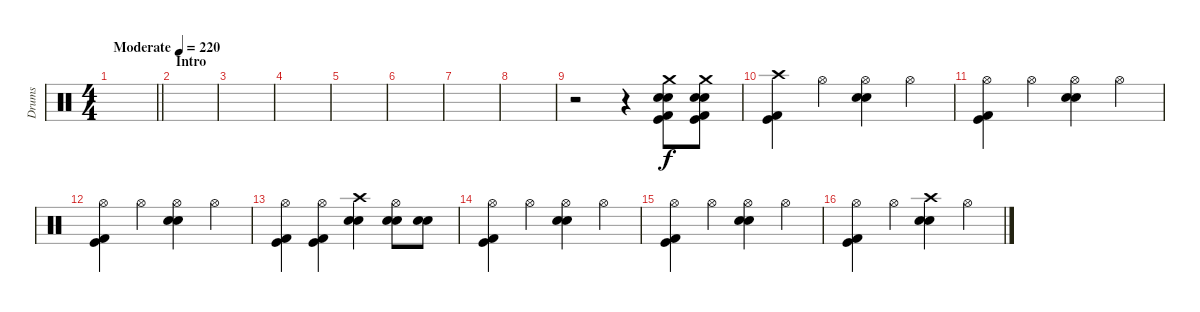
\track ("Drums" "Drums") {instrument percussion}
\staff {score}
\articulation defaults
\ts (4 4)
\tempo (220 "Moderate")
\clef neutral
\barLineRight lightlight
\ks c
|
\section ("" "Intro")
|
|
|
|
|
|
|
r.2 r.4 ("Crash medium (hit)" "Snare (hit) 2" "Electric Snare (hit)" "Kick (hit) 2" "Kick (hit)").8 ("Crash medium (hit)" "Snare (hit) 2" "Electric Snare (hit)" "Kick (hit) 2" "Kick (hit)").8 |
("Crash high (hit)" "Kick (hit) 2" "Kick (hit)").4 "Hi-Hat (open)".4 ("Hi-Hat (open)" "Electric Snare (hit)" "Snare (hit) 2").4 "Hi-Hat (open)".4 |
("Hi-Hat (open)" "Kick (hit) 2" "Kick (hit)").4 "Hi-Hat (open)".4 ("Hi-Hat (open)" "Electric Snare (hit)" "Snare (hit) 2").4 "Hi-Hat (open)".4 |
("Hi-Hat (open)" "Kick (hit) 2" "Kick (hit)").4 "Hi-Hat (open)".4 ("Hi-Hat (open)" "Electric Snare (hit)" "Snare (hit) 2").4 "Hi-Hat (open)".4 |
("Hi-Hat (open)" "Kick (hit) 2" "Kick (hit)").4 ("Hi-Hat (open)" "Kick (hit) 2" "Kick (hit)").4 ("Crash high (hit)" "Electric Snare (hit)" "Snare (hit) 2").4 ("Hi-Hat (open)" "Electric Snare (hit)" "Snare (hit) 2").8 ("Electric Snare (hit)" "Snare (hit) 2").8 |
("Hi-Hat (open)" "Kick (hit) 2" "Kick (hit)").4 "Hi-Hat (open)".4 ("Hi-Hat (open)" "Electric Snare (hit)" "Snare (hit) 2").4 "Hi-Hat (open)".4 |
("Hi-Hat (open)" "Kick (hit) 2" "Kick (hit)").4 "Hi-Hat (open)".4 ("Hi-Hat (open)" "Electric Snare (hit)" "Snare (hit) 2").4 "Hi-Hat (open)".4 |
("Hi-Hat (open)" "Kick (hit) 2" "Kick (hit)").4 "Hi-Hat (open)".4 ("Crash high (hit)" "Electric Snare (hit)" "Snare (hit) 2").4 "Hi-Hat (open)".4
